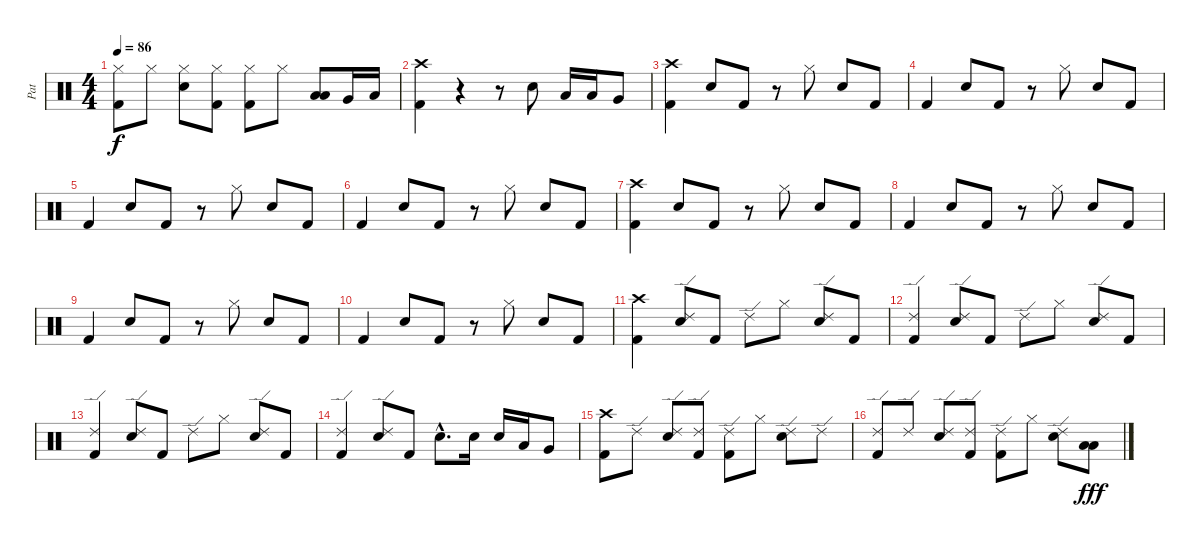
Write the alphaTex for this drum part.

\track ("Pat" "Pat") {instrument percussion}
\staff {score}
\articulation defaults
\ts (4 4)
\tempo 86
\clef neutral
\ks c
("Hi-Hat (closed)" "Kick (hit) 2").8{dy f} "Hi-Hat (closed)".8 ("Hi-Hat (closed)" "Snare (hit) 2").8 ("Hi-Hat (closed)" "Kick (hit) 2").8 ("Hi-Hat (closed)" "Kick (hit) 2").8 "Hi-Hat (closed)".8 ("Low Floor Tom (hit)" "Low Floor Tom (hit)").8{volume 16} "Very Low Tom (hit)".16{volume 12} "Low Floor Tom (hit)".16 |
("Crash high (hit)" "Kick (hit) 2").4 r.4 r.8 "Snare (hit) 2".8 "Low Tom (hit)".16 "Low Tom (hit)".16 "Very Low Tom (hit)".8 |
("Crash high (hit)" "Kick (hit) 2").4 "Snare (hit) 2".8 "Kick (hit) 2".8 r.8 "Hi-Hat (closed)".8 "Snare (hit) 2".8 "Kick (hit) 2".8 |
"Kick (hit) 2".4 "Snare (hit) 2".8 "Kick (hit) 2".8 r.8 "Hi-Hat (closed)".8 "Snare (hit) 2".8 "Kick (hit) 2".8 |
"Kick (hit) 2".4 "Snare (hit) 2".8 "Kick (hit) 2".8 r.8 "Hi-Hat (closed)".8 "Snare (hit) 2".8 "Kick (hit) 2".8 |
"Kick (hit) 2".4 "Snare (hit) 2".8 "Kick (hit) 2".8 r.8 "Hi-Hat (closed)".8 "Snare (hit) 2".8 "Kick (hit) 2".8 |
("Crash high (hit)" "Kick (hit) 2").4 "Snare (hit) 2".8 "Kick (hit) 2".8 r.8 "Hi-Hat (closed)".8 "Snare (hit) 2".8 "Kick (hit) 2".8 |
"Kick (hit) 2".4 "Snare (hit) 2".8 "Kick (hit) 2".8 r.8 "Hi-Hat (closed)".8 "Snare (hit) 2".8 "Kick (hit) 2".8 |
"Kick (hit) 2".4 "Snare (hit) 2".8 "Kick (hit) 2".8 r.8 "Hi-Hat (closed)".8 "Snare (hit) 2".8 "Kick (hit) 2".8 |
"Kick (hit) 2".4 "Snare (hit) 2".8 "Kick (hit) 2".8 r.8 "Hi-Hat (closed)".8 "Snare (hit) 2".8 "Kick (hit) 2".8 |
("Crash high (hit)" "Kick (hit) 2").4 ("Ride (edge) 2" "Snare (hit) 2").8 "Kick (hit) 2".8 "Ride (edge) 2".8 "Hi-Hat (closed)".8 ("Ride (edge) 2" "Snare (hit) 2").8 "Kick (hit) 2".8 |
("Ride (edge) 2" "Kick (hit) 2").4 ("Ride (edge) 2" "Snare (hit) 2").8 "Kick (hit) 2".8 "Ride (edge) 2".8 "Hi-Hat (closed)".8 ("Ride (edge) 2" "Snare (hit) 2").8 "Kick (hit) 2".8 |
("Ride (edge) 2" "Kick (hit) 2").4 ("Ride (edge) 2" "Snare (hit) 2").8 "Kick (hit) 2".8 "Ride (edge) 2".8 "Hi-Hat (closed)".8 ("Ride (edge) 2" "Snare (hit) 2").8 "Kick (hit) 2".8 |
("Ride (edge) 2" "Kick (hit) 2").4 ("Ride (edge) 2" "Snare (hit) 2").8 "Kick (hit) 2".8 "Snare (hit) 2"{hac}.8{d} "Snare (hit) 2".16 "Snare (hit) 2".16 "Low Tom (hit)".16 "Very Low Tom (hit)".8 |
("Crash high (hit)" "Kick (hit) 2").8 "Ride (edge) 2".8 ("Ride (edge) 2" "Snare (hit) 2").8 ("Ride (edge) 2" "Kick (hit) 2").8 ("Ride (edge) 2" "Kick (hit) 2").8 "Hi-Hat (closed)".8 ("Ride (edge) 2" "Snare (hit) 2").8 "Ride (edge) 2".8 |
("Ride (edge) 2" "Kick (hit) 2").8 "Ride (edge) 2".8 ("Ride (edge) 2" "Snare (hit) 2").8 ("Ride (edge) 2" "Kick (hit) 2").8 ("Ride (edge) 2" "Kick (hit) 2").8 "Hi-Hat (closed)".8 ("Ride (edge) 2" "Snare (hit) 2").8 ("Low Floor Tom (hit)" "Low Floor Tom (hit)").8{dy fff}
